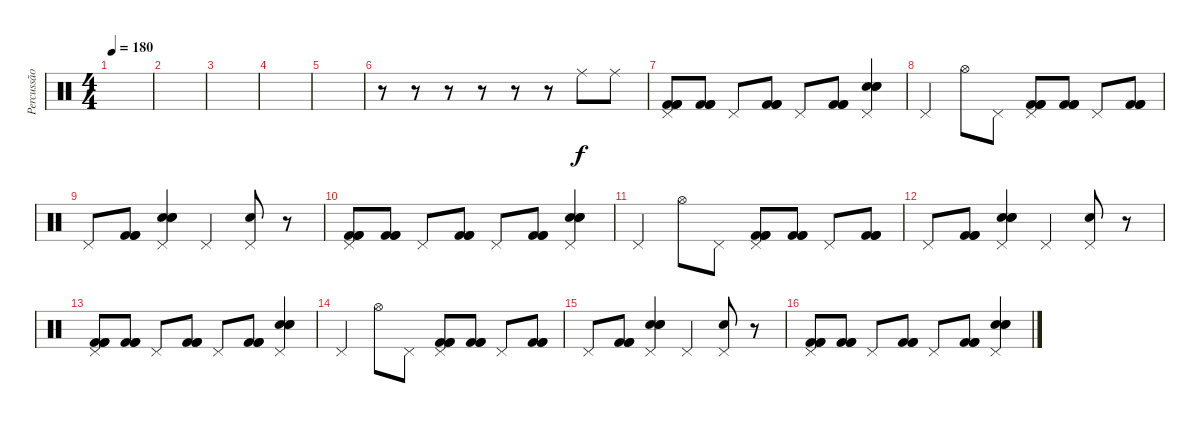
\track ("Percussão" "Percussão") {instrument percussion}
\staff {score}
\articulation defaults
\ts (4 4)
\tempo 180
\clef neutral
\ks c
|
|
|
|
|
r.8 r.8 r.8 r.8 r.8 r.8 "Ride (middle)".8 "Ride (middle)".8 |
("Pedal Hi-Hat (hit)" "Kick (hit) 2" "Kick (hit) 2" "Kick (hit) 2").8 ("Kick (hit) 2" "Kick (hit) 2" "Kick (hit) 2").8 "Pedal Hi-Hat (hit)".8 ("Kick (hit) 2" "Kick (hit) 2" "Kick (hit) 2").8 "Pedal Hi-Hat (hit)".8 ("Kick (hit) 2" "Kick (hit) 2" "Kick (hit) 2").8 ("Pedal Hi-Hat (hit)" "Electric Snare (hit)" "Electric Snare (hit)" "Electric Snare (hit)").4 |
"Pedal Hi-Hat (hit)".4 "Hi-Hat (open)".8 "Pedal Hi-Hat (hit)".8 ("Pedal Hi-Hat (hit)" "Kick (hit) 2" "Kick (hit) 2" "Kick (hit) 2").8 ("Kick (hit) 2" "Kick (hit) 2" "Kick (hit) 2").8 "Pedal Hi-Hat (hit)".8 ("Kick (hit) 2" "Kick (hit) 2" "Kick (hit) 2").8 |
"Pedal Hi-Hat (hit)".8 ("Kick (hit) 2" "Kick (hit) 2" "Kick (hit) 2").8 ("Pedal Hi-Hat (hit)" "Electric Snare (hit)" "Electric Snare (hit)" "Electric Snare (hit)").4 "Pedal Hi-Hat (hit)".4 ("Pedal Hi-Hat (hit)" "Electric Snare (hit)").8 r.8 |
("Pedal Hi-Hat (hit)" "Kick (hit) 2" "Kick (hit) 2" "Kick (hit) 2").8 ("Kick (hit) 2" "Kick (hit) 2" "Kick (hit) 2").8 "Pedal Hi-Hat (hit)".8 ("Kick (hit) 2" "Kick (hit) 2" "Kick (hit) 2").8 "Pedal Hi-Hat (hit)".8 ("Kick (hit) 2" "Kick (hit) 2" "Kick (hit) 2").8 ("Pedal Hi-Hat (hit)" "Electric Snare (hit)" "Electric Snare (hit)" "Electric Snare (hit)").4 |
"Pedal Hi-Hat (hit)".4 "Hi-Hat (open)".8 "Pedal Hi-Hat (hit)".8 ("Pedal Hi-Hat (hit)" "Kick (hit) 2" "Kick (hit) 2" "Kick (hit) 2").8 ("Kick (hit) 2" "Kick (hit) 2" "Kick (hit) 2").8 "Pedal Hi-Hat (hit)".8 ("Kick (hit) 2" "Kick (hit) 2" "Kick (hit) 2").8 |
"Pedal Hi-Hat (hit)".8 ("Kick (hit) 2" "Kick (hit) 2" "Kick (hit) 2").8 ("Pedal Hi-Hat (hit)" "Electric Snare (hit)" "Electric Snare (hit)" "Electric Snare (hit)").4 "Pedal Hi-Hat (hit)".4 ("Pedal Hi-Hat (hit)" "Electric Snare (hit)").8 r.8 |
("Pedal Hi-Hat (hit)" "Kick (hit) 2" "Kick (hit) 2" "Kick (hit) 2").8 ("Kick (hit) 2" "Kick (hit) 2" "Kick (hit) 2").8 "Pedal Hi-Hat (hit)".8 ("Kick (hit) 2" "Kick (hit) 2" "Kick (hit) 2").8 "Pedal Hi-Hat (hit)".8 ("Kick (hit) 2" "Kick (hit) 2" "Kick (hit) 2").8 ("Pedal Hi-Hat (hit)" "Electric Snare (hit)" "Electric Snare (hit)" "Electric Snare (hit)").4 |
"Pedal Hi-Hat (hit)".4 "Hi-Hat (open)".8 "Pedal Hi-Hat (hit)".8 ("Pedal Hi-Hat (hit)" "Kick (hit) 2" "Kick (hit) 2" "Kick (hit) 2").8 ("Kick (hit) 2" "Kick (hit) 2" "Kick (hit) 2").8 "Pedal Hi-Hat (hit)".8 ("Kick (hit) 2" "Kick (hit) 2" "Kick (hit) 2").8 |
"Pedal Hi-Hat (hit)".8 ("Kick (hit) 2" "Kick (hit) 2" "Kick (hit) 2").8 ("Pedal Hi-Hat (hit)" "Electric Snare (hit)" "Electric Snare (hit)" "Electric Snare (hit)").4 "Pedal Hi-Hat (hit)".4 ("Pedal Hi-Hat (hit)" "Electric Snare (hit)").8 r.8 |
("Pedal Hi-Hat (hit)" "Kick (hit) 2" "Kick (hit) 2" "Kick (hit) 2").8 ("Kick (hit) 2" "Kick (hit) 2" "Kick (hit) 2").8 "Pedal Hi-Hat (hit)".8 ("Kick (hit) 2" "Kick (hit) 2" "Kick (hit) 2").8 "Pedal Hi-Hat (hit)".8 ("Kick (hit) 2" "Kick (hit) 2" "Kick (hit) 2").8 ("Pedal Hi-Hat (hit)" "Electric Snare (hit)" "Electric Snare (hit)" "Electric Snare (hit)").4
